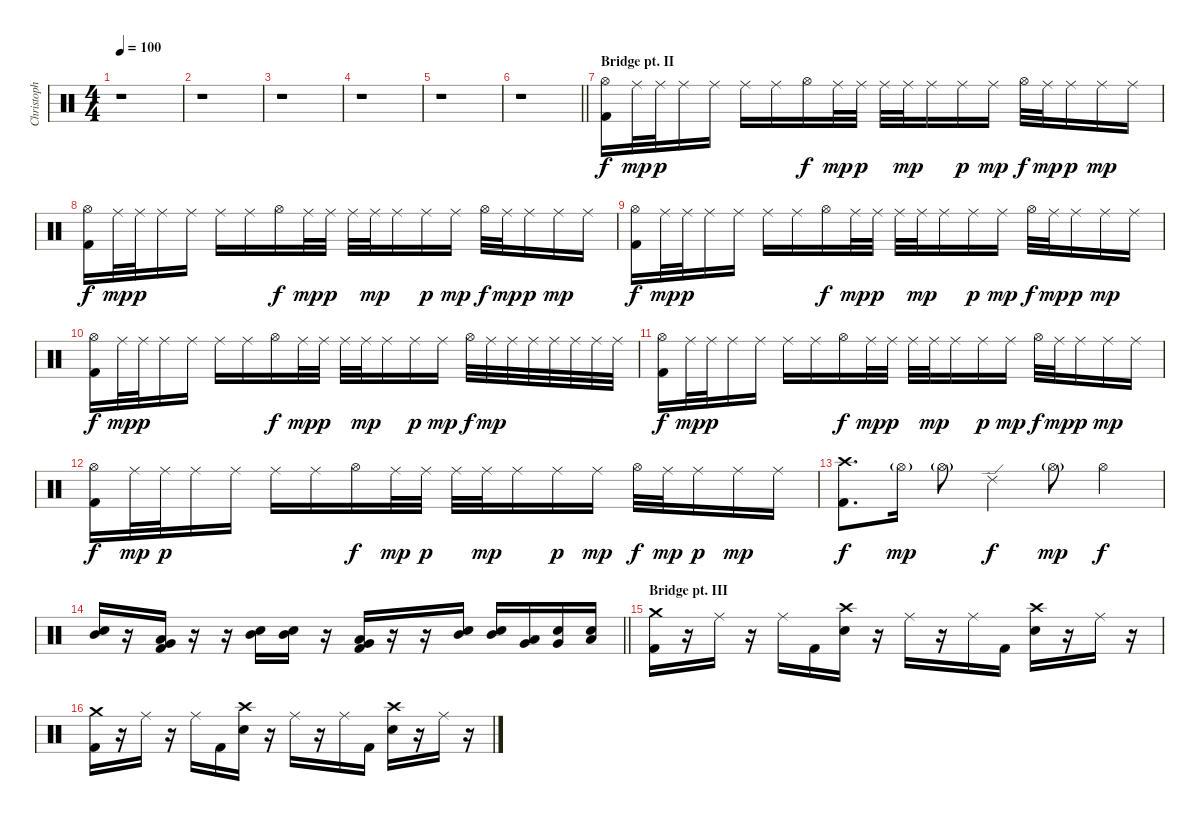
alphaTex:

\track ("Christoph Schneider" "Christoph ") {instrument percussion}
\staff {score}
\articulation defaults
\ts (4 4)
\tempo 100
\clef neutral
\ks c
r.1{dy f} |
r.1 |
r.1 |
r.1 |
r.1 |
\barLineRight lightlight
r.1 |
\section ("" "Bridge pt. II")
("Hi-Hat (open)" "Kick (hit) 2").16 "Ride (middle)".32{dy mp} "Ride (middle)".32{dy p} "Ride (middle)".16 "Ride (middle)".16 "Ride (middle)".16 "Ride (middle)".16 "Hi-Hat (open)".16{dy f} "Ride (middle)".32{dy mp} "Ride (middle)".32{dy p} "Ride (middle)".32 "Ride (middle)".32{dy mp} "Ride (middle)".16 "Ride (middle)".16{dy p} "Ride (middle)".16{dy mp} "Hi-Hat (open)".32{dy f} "Ride (middle)".32{dy mp} "Ride (middle)".16{dy p} "Ride (middle)".16{dy mp} "Ride (middle)".16 |
("Hi-Hat (open)" "Kick (hit) 2").16{dy f} "Ride (middle)".32{dy mp} "Ride (middle)".32{dy p} "Ride (middle)".16 "Ride (middle)".16 "Ride (middle)".16 "Ride (middle)".16 "Hi-Hat (open)".16{dy f} "Ride (middle)".32{dy mp} "Ride (middle)".32{dy p} "Ride (middle)".32 "Ride (middle)".32{dy mp} "Ride (middle)".16 "Ride (middle)".16{dy p} "Ride (middle)".16{dy mp} "Hi-Hat (open)".32{dy f} "Ride (middle)".32{dy mp} "Ride (middle)".16{dy p} "Ride (middle)".16{dy mp} "Ride (middle)".16 |
("Hi-Hat (open)" "Kick (hit) 2").16{dy f} "Ride (middle)".32{dy mp} "Ride (middle)".32{dy p} "Ride (middle)".16 "Ride (middle)".16 "Ride (middle)".16 "Ride (middle)".16 "Hi-Hat (open)".16{dy f} "Ride (middle)".32{dy mp} "Ride (middle)".32{dy p} "Ride (middle)".32 "Ride (middle)".32{dy mp} "Ride (middle)".16 "Ride (middle)".16{dy p} "Ride (middle)".16{dy mp} "Hi-Hat (open)".32{dy f} "Ride (middle)".32{dy mp} "Ride (middle)".16{dy p} "Ride (middle)".16{dy mp} "Ride (middle)".16 |
("Hi-Hat (open)" "Kick (hit) 2").16{dy f} "Ride (middle)".32{dy mp} "Ride (middle)".32{dy p} "Ride (middle)".16 "Ride (middle)".16 "Ride (middle)".16 "Ride (middle)".16 "Hi-Hat (open)".16{dy f} "Ride (middle)".32{dy mp} "Ride (middle)".32{dy p} "Ride (middle)".32 "Ride (middle)".32{dy mp} "Ride (middle)".16 "Ride (middle)".16{dy p} "Ride (middle)".16{dy mp} "Hi-Hat (open)".32{dy f} "Ride (middle)".32{dy mp} "Ride (middle)".32 "Ride (middle)".32 "Ride (middle)".32 "Ride (middle)".32 "Ride (middle)".32 "Ride (middle)".32 |
("Hi-Hat (open)" "Kick (hit) 2").16{dy f} "Ride (middle)".32{dy mp} "Ride (middle)".32{dy p} "Ride (middle)".16 "Ride (middle)".16 "Ride (middle)".16 "Ride (middle)".16 "Hi-Hat (open)".16{dy f} "Ride (middle)".32{dy mp} "Ride (middle)".32{dy p} "Ride (middle)".32 "Ride (middle)".32{dy mp} "Ride (middle)".16 "Ride (middle)".16{dy p} "Ride (middle)".16{dy mp} "Hi-Hat (open)".32{dy f} "Ride (middle)".32{dy mp} "Ride (middle)".16{dy p} "Ride (middle)".16{dy mp} "Ride (middle)".16 |
("Hi-Hat (open)" "Kick (hit) 2").16{dy f} "Ride (middle)".32{dy mp} "Ride (middle)".32{dy p} "Ride (middle)".16 "Ride (middle)".16 "Ride (middle)".16 "Ride (middle)".16 "Hi-Hat (open)".16{dy f} "Ride (middle)".32{dy mp} "Ride (middle)".32{dy p} "Ride (middle)".32 "Ride (middle)".32{dy mp} "Ride (middle)".16 "Ride (middle)".16{dy p} "Ride (middle)".16{dy mp} "Hi-Hat (open)".32{dy f} "Ride (middle)".32{dy mp} "Ride (middle)".16{dy p} "Ride (middle)".16{dy mp} "Ride (middle)".16 |
("Crash high (hit)" "Kick (hit) 2").8{d dy f} "Hi-Hat (open)"{g}.16{dy mp} "Hi-Hat (open)"{g}.8 "Ride (edge) 2".4{dy f} "Hi-Hat (open)"{g}.8{dy mp} "Hi-Hat (open)".4{dy f} |
\barLineRight lightlight
("Mid Tom (hit)" "Snare (hit) 2").16 r.16 ("Low Tom (hit)" "Very Low Tom (hit)" "Kick (hit) 2").16 r.16 r.16 ("Mid Tom (hit)" "Snare (hit) 2").16 ("Mid Tom (hit)" "Snare (hit) 2").16 r.16 ("Low Tom (hit)" "Very Low Tom (hit)" "Kick (hit) 2").16 r.16 r.16 ("Mid Tom (hit)" "Snare (hit) 2").16 ("Mid Tom (hit)" "Snare (hit) 2").16 ("Low Tom (hit)" "Very Low Tom (hit)").16 ("Very Low Tom (hit)" "Snare (hit) 2").16 ("Low Floor Tom (hit)" "Snare (hit) 2").16 |
\section ("" "Bridge pt. III")
("Crash medium (hit)" "Kick (hit) 2").16 r.16 "Ride (middle)".16 r.16 "Ride (middle)".16 "Kick (hit) 2".16 ("Crash high (hit)" "Snare (hit) 2").16 r.16 "Ride (middle)".16 r.16 "Ride (middle)".16 "Kick (hit) 2".16 ("Crash high (hit)" "Snare (hit) 2").16 r.16 "Ride (middle)".16 r.16 |
("Crash medium (hit)" "Kick (hit) 2").16 r.16 "Ride (middle)".16 r.16 "Ride (middle)".16 "Kick (hit) 2".16 ("Crash high (hit)" "Snare (hit) 2").16 r.16 "Ride (middle)".16 r.16 "Ride (middle)".16 "Kick (hit) 2".16 ("Crash high (hit)" "Snare (hit) 2").16 r.16 "Ride (middle)".16 r.16
